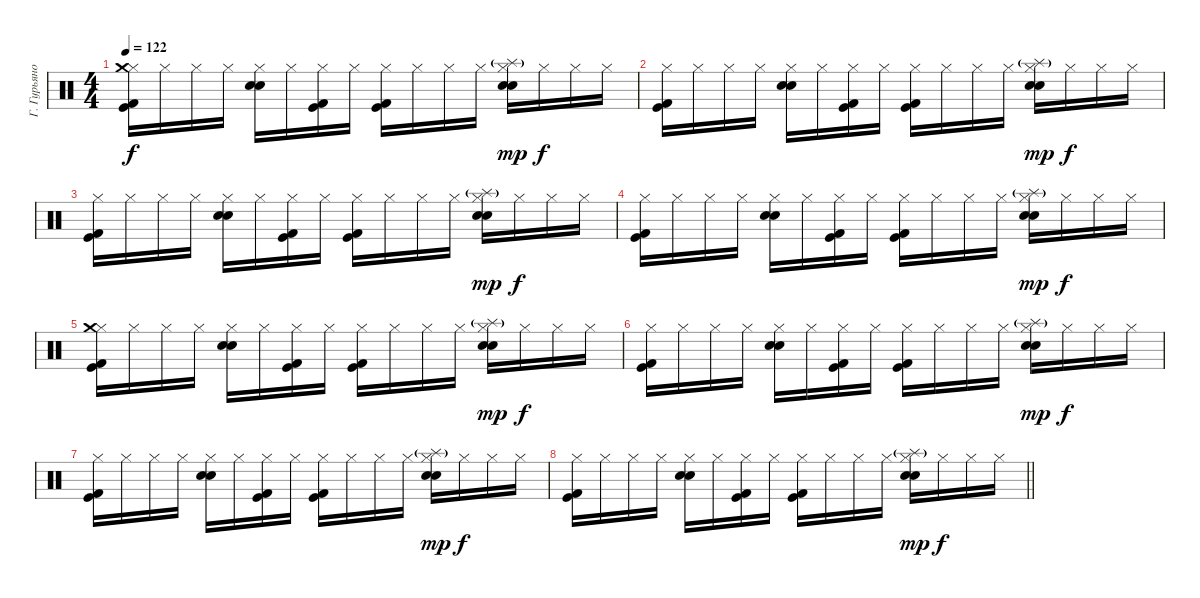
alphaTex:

\track ("Г. Гурьянов" "Г. Гурьяно") {instrument percussion}
\staff
\articulation defaults
\ts (4 4)
\tempo 122
\clef neutral
\ks c
("Hi-Hat (closed)" "Crash medium (hit)" "Kick (hit)" "Kick (hit) 2").16{dy f} "Hi-Hat (closed)".16 "Hi-Hat (closed)".16 "Hi-Hat (closed)".16 ("Hi-Hat (closed)" "Electric Snare (hit)" "Snare (hit) 2").16 "Hi-Hat (closed)".16 ("Hi-Hat (closed)" "Kick (hit)" "Kick (hit) 2").16 "Hi-Hat (closed)".16 ("Hi-Hat (closed)" "Kick (hit)" "Kick (hit) 2").16 "Hi-Hat (closed)".16 "Hi-Hat (closed)".16 "Hi-Hat (closed)".16 ("Hi-Hat (closed)" "Electric Snare (hit)" "Snare (hit) 2" "Splash (hit)"{g}).16{dy mp} "Hi-Hat (closed)".16{dy f} "Hi-Hat (closed)".16 "Hi-Hat (closed)".16 |
("Hi-Hat (closed)" "Kick (hit)" "Kick (hit) 2").16 "Hi-Hat (closed)".16 "Hi-Hat (closed)".16 "Hi-Hat (closed)".16 ("Hi-Hat (closed)" "Electric Snare (hit)" "Snare (hit) 2").16 "Hi-Hat (closed)".16 ("Hi-Hat (closed)" "Kick (hit)" "Kick (hit) 2").16 "Hi-Hat (closed)".16 ("Hi-Hat (closed)" "Kick (hit)" "Kick (hit) 2").16 "Hi-Hat (closed)".16 "Hi-Hat (closed)".16 "Hi-Hat (closed)".16 ("Hi-Hat (closed)" "Electric Snare (hit)" "Snare (hit) 2" "Splash (hit)"{g}).16{dy mp} "Hi-Hat (closed)".16{dy f} "Hi-Hat (closed)".16 "Hi-Hat (closed)".16 |
("Hi-Hat (closed)" "Kick (hit)" "Kick (hit) 2").16 "Hi-Hat (closed)".16 "Hi-Hat (closed)".16 "Hi-Hat (closed)".16 ("Hi-Hat (closed)" "Electric Snare (hit)" "Snare (hit) 2").16 "Hi-Hat (closed)".16 ("Hi-Hat (closed)" "Kick (hit)" "Kick (hit) 2").16 "Hi-Hat (closed)".16 ("Hi-Hat (closed)" "Kick (hit)" "Kick (hit) 2").16 "Hi-Hat (closed)".16 "Hi-Hat (closed)".16 "Hi-Hat (closed)".16 ("Hi-Hat (closed)" "Electric Snare (hit)" "Snare (hit) 2" "Splash (hit)"{g}).16{dy mp} "Hi-Hat (closed)".16{dy f} "Hi-Hat (closed)".16 "Hi-Hat (closed)".16 |
("Hi-Hat (closed)" "Kick (hit)" "Kick (hit) 2").16 "Hi-Hat (closed)".16 "Hi-Hat (closed)".16 "Hi-Hat (closed)".16 ("Hi-Hat (closed)" "Electric Snare (hit)" "Snare (hit) 2").16 "Hi-Hat (closed)".16 ("Hi-Hat (closed)" "Kick (hit)" "Kick (hit) 2").16 "Hi-Hat (closed)".16 ("Hi-Hat (closed)" "Kick (hit)" "Kick (hit) 2").16 "Hi-Hat (closed)".16 "Hi-Hat (closed)".16 "Hi-Hat (closed)".16 ("Hi-Hat (closed)" "Electric Snare (hit)" "Snare (hit) 2" "Splash (hit)"{g}).16{dy mp} "Hi-Hat (closed)".16{dy f} "Hi-Hat (closed)".16 "Hi-Hat (closed)".16 |
("Hi-Hat (closed)" "Crash medium (hit)" "Kick (hit)" "Kick (hit) 2").16 "Hi-Hat (closed)".16 "Hi-Hat (closed)".16 "Hi-Hat (closed)".16 ("Hi-Hat (closed)" "Electric Snare (hit)" "Snare (hit) 2").16 "Hi-Hat (closed)".16 ("Hi-Hat (closed)" "Kick (hit)" "Kick (hit) 2").16 "Hi-Hat (closed)".16 ("Hi-Hat (closed)" "Kick (hit)" "Kick (hit) 2").16 "Hi-Hat (closed)".16 "Hi-Hat (closed)".16 "Hi-Hat (closed)".16 ("Hi-Hat (closed)" "Electric Snare (hit)" "Snare (hit) 2" "Splash (hit)"{g}).16{dy mp} "Hi-Hat (closed)".16{dy f} "Hi-Hat (closed)".16 "Hi-Hat (closed)".16 |
("Hi-Hat (closed)" "Kick (hit)" "Kick (hit) 2").16 "Hi-Hat (closed)".16 "Hi-Hat (closed)".16 "Hi-Hat (closed)".16 ("Hi-Hat (closed)" "Electric Snare (hit)" "Snare (hit) 2").16 "Hi-Hat (closed)".16 ("Hi-Hat (closed)" "Kick (hit)" "Kick (hit) 2").16 "Hi-Hat (closed)".16 ("Hi-Hat (closed)" "Kick (hit)" "Kick (hit) 2").16 "Hi-Hat (closed)".16 "Hi-Hat (closed)".16 "Hi-Hat (closed)".16 ("Hi-Hat (closed)" "Electric Snare (hit)" "Snare (hit) 2" "Splash (hit)"{g}).16{dy mp} "Hi-Hat (closed)".16{dy f} "Hi-Hat (closed)".16 "Hi-Hat (closed)".16 |
("Hi-Hat (closed)" "Kick (hit)" "Kick (hit) 2").16 "Hi-Hat (closed)".16 "Hi-Hat (closed)".16 "Hi-Hat (closed)".16 ("Hi-Hat (closed)" "Electric Snare (hit)" "Snare (hit) 2").16 "Hi-Hat (closed)".16 ("Hi-Hat (closed)" "Kick (hit)" "Kick (hit) 2").16 "Hi-Hat (closed)".16 ("Hi-Hat (closed)" "Kick (hit)" "Kick (hit) 2").16 "Hi-Hat (closed)".16 "Hi-Hat (closed)".16 "Hi-Hat (closed)".16 ("Hi-Hat (closed)" "Electric Snare (hit)" "Snare (hit) 2" "Splash (hit)"{g}).16{dy mp} "Hi-Hat (closed)".16{dy f} "Hi-Hat (closed)".16 "Hi-Hat (closed)".16 |
\barLineRight lightlight
("Hi-Hat (closed)" "Kick (hit)" "Kick (hit) 2").16 "Hi-Hat (closed)".16 "Hi-Hat (closed)".16 "Hi-Hat (closed)".16 ("Hi-Hat (closed)" "Electric Snare (hit)" "Snare (hit) 2").16 "Hi-Hat (closed)".16 ("Hi-Hat (closed)" "Kick (hit)" "Kick (hit) 2").16 "Hi-Hat (closed)".16 ("Hi-Hat (closed)" "Kick (hit)" "Kick (hit) 2").16 "Hi-Hat (closed)".16 "Hi-Hat (closed)".16 "Hi-Hat (closed)".16 ("Hi-Hat (closed)" "Electric Snare (hit)" "Snare (hit) 2" "Splash (hit)"{g}).16{dy mp} "Hi-Hat (closed)".16{dy f} "Hi-Hat (closed)".16 "Hi-Hat (closed)".16
